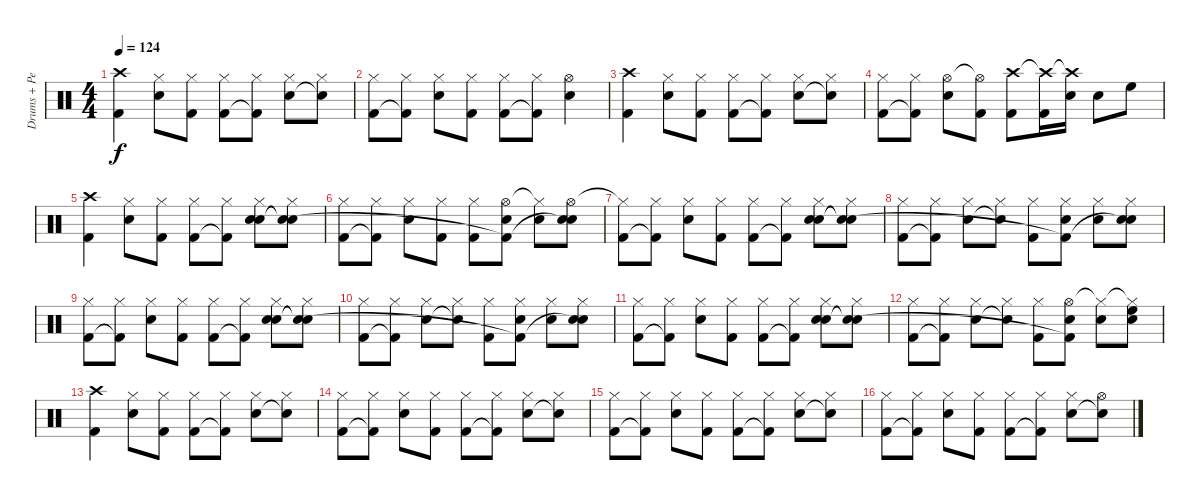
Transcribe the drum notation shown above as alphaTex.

\track ("Drums + Percussions (Bill Berry)" "Drums + Pe") {instrument percussion}
\staff {score}
\articulation defaults
\ts (4 4)
\tempo 124
\clef neutral
\ks c
("Crash high (hit)" "Kick (hit) 2").4{dy f} ("Hi-Hat (closed)" "Snare (hit) 2").8 ("Hi-Hat (closed)" "Kick (hit) 2").8 ("Hi-Hat (closed)" "Kick (hit) 2").8 ("Hi-Hat (closed)" "Kick (hit) 2"{t}).8 ("Hi-Hat (closed)" "Snare (hit) 2").8 ("Hi-Hat (closed)" "Snare (hit) 2"{t}).8 |
("Hi-Hat (closed)" "Kick (hit) 2").8 ("Hi-Hat (closed)" "Kick (hit) 2"{t}).8 ("Hi-Hat (closed)" "Snare (hit) 2").8 ("Hi-Hat (closed)" "Kick (hit) 2").8 ("Hi-Hat (closed)" "Kick (hit) 2").8 ("Hi-Hat (closed)" "Kick (hit) 2"{t}).8 ("Hi-Hat (open)" "Snare (hit) 2").4 |
("Crash high (hit)" "Kick (hit) 2").4 ("Hi-Hat (closed)" "Snare (hit) 2").8 ("Hi-Hat (closed)" "Kick (hit) 2").8 ("Hi-Hat (closed)" "Kick (hit) 2").8 ("Hi-Hat (closed)" "Kick (hit) 2"{t}).8 ("Hi-Hat (closed)" "Snare (hit) 2").8 ("Hi-Hat (closed)" "Snare (hit) 2"{t}).8 |
("Hi-Hat (closed)" "Kick (hit) 2").8 ("Hi-Hat (closed)" "Kick (hit) 2"{t}).8 ("Hi-Hat (open)" "Snare (hit) 2").8 ("Hi-Hat (open)"{t} "Kick (hit) 2").8 ("Crash high (hit)" "Kick (hit) 2").8 ("Crash high (hit)"{t} "Kick (hit) 2").16 ("Crash high (hit)"{t} "Snare (hit) 2").16 "Snare (hit) 2".8 "High Floor Tom (hit)".8 |
("Crash high (hit)" "Kick (hit) 2").4 ("Hi-Hat (closed)" "Snare (hit) 2").8 ("Hi-Hat (closed)" "Kick (hit) 2").8 ("Hi-Hat (closed)" "Kick (hit) 2").8 ("Hi-Hat (closed)" "Kick (hit) 2"{t}).8 ("Hi-Hat (closed)" "Hand Clap (hit)" "Snare (hit) 2").8 ("Hi-Hat (closed)" "Hand Clap (hit)"{t} "Snare (hit) 2"{t}).8 |
("Hi-Hat (closed)" "Kick (hit) 2").8 ("Hi-Hat (closed)" "Kick (hit) 2"{t}).8 ("Hi-Hat (closed)" "Snare (hit) 2").8 ("Hi-Hat (closed)" "Kick (hit) 2").8 ("Hi-Hat (closed)" "Kick (hit) 2").8 ("Hi-Hat (open)" "Hand Clap (hit)" "Kick (hit) 2"{t}).8 ("Hi-Hat (closed)"{t} "Snare (hit) 2").8 ("Hi-Hat (open)" "Hand Clap (hit)" "Snare (hit) 2"{t}).8 |
("Hi-Hat (closed)"{t} "Kick (hit) 2").8 ("Hi-Hat (closed)" "Kick (hit) 2"{t}).8 ("Hi-Hat (closed)" "Snare (hit) 2").8 ("Hi-Hat (closed)" "Kick (hit) 2").8 ("Hi-Hat (closed)" "Kick (hit) 2").8 ("Hi-Hat (closed)" "Kick (hit) 2"{t}).8 ("Hi-Hat (closed)" "Hand Clap (hit)" "Snare (hit) 2").8 ("Hi-Hat (closed)" "Hand Clap (hit)"{t} "Snare (hit) 2"{t}).8 |
("Hi-Hat (closed)" "Kick (hit) 2").8 ("Hi-Hat (closed)" "Kick (hit) 2"{t}).8 ("Hi-Hat (closed)" "Snare (hit) 2").8 ("Hi-Hat (closed)" "Snare (hit) 2"{t}).8 ("Hi-Hat (closed)" "Kick (hit) 2").8 ("Hi-Hat (closed)" "Hand Clap (hit)" "Kick (hit) 2"{t}).8 ("Hi-Hat (closed)" "Snare (hit) 2").8 ("Hi-Hat (closed)" "Hand Clap (hit)" "Snare (hit) 2"{t}).8 |
("Hi-Hat (closed)" "Kick (hit) 2").8 ("Hi-Hat (closed)" "Kick (hit) 2"{t}).8 ("Hi-Hat (closed)" "Snare (hit) 2").8 ("Hi-Hat (closed)" "Kick (hit) 2").8 ("Hi-Hat (closed)" "Kick (hit) 2").8 ("Hi-Hat (closed)" "Kick (hit) 2"{t}).8 ("Hi-Hat (closed)" "Hand Clap (hit)" "Snare (hit) 2").8 ("Hi-Hat (closed)" "Hand Clap (hit)"{t} "Snare (hit) 2"{t}).8 |
("Hi-Hat (closed)" "Kick (hit) 2").8 ("Hi-Hat (closed)" "Kick (hit) 2"{t}).8 ("Hi-Hat (closed)" "Snare (hit) 2").8 ("Hi-Hat (closed)" "Snare (hit) 2"{t}).8 ("Hi-Hat (closed)" "Kick (hit) 2").8 ("Hi-Hat (closed)" "Hand Clap (hit)" "Kick (hit) 2"{t}).8 ("Hi-Hat (closed)" "Snare (hit) 2").8 ("Hi-Hat (closed)" "Hand Clap (hit)" "Snare (hit) 2"{t}).8 |
("Hi-Hat (closed)" "Kick (hit) 2").8 ("Hi-Hat (closed)" "Kick (hit) 2"{t}).8 ("Hi-Hat (closed)" "Snare (hit) 2").8 ("Hi-Hat (closed)" "Kick (hit) 2").8 ("Hi-Hat (closed)" "Kick (hit) 2").8 ("Hi-Hat (closed)" "Kick (hit) 2"{t}).8 ("Hi-Hat (closed)" "Hand Clap (hit)" "Snare (hit) 2").8 ("Hi-Hat (closed)" "Hand Clap (hit)"{t} "Snare (hit) 2"{t}).8 |
("Hi-Hat (closed)" "Kick (hit) 2").8 ("Hi-Hat (closed)" "Kick (hit) 2"{t}).8 ("Hi-Hat (closed)" "Snare (hit) 2").8 ("Hi-Hat (closed)" "Snare (hit) 2"{t}).8 ("Hi-Hat (closed)" "Kick (hit) 2").8 ("Hi-Hat (open)" "Hand Clap (hit)" "Kick (hit) 2"{t}).8 ("Hi-Hat (closed)"{t} "Snare (hit) 2").8 ("Hi-Hat (closed)"{t} "Hand Clap (hit)" "High Floor Tom (hit)").8 |
("Crash high (hit)" "Kick (hit) 2").4 ("Hi-Hat (closed)" "Snare (hit) 2").8 ("Hi-Hat (closed)" "Kick (hit) 2").8 ("Hi-Hat (closed)" "Kick (hit) 2").8 ("Hi-Hat (closed)" "Kick (hit) 2"{t}).8 ("Hi-Hat (closed)" "Snare (hit) 2").8 ("Hi-Hat (closed)" "Snare (hit) 2"{t}).8 |
("Hi-Hat (closed)" "Kick (hit) 2").8 ("Hi-Hat (closed)" "Kick (hit) 2"{t}).8 ("Hi-Hat (closed)" "Snare (hit) 2").8 ("Hi-Hat (closed)" "Kick (hit) 2").8 ("Hi-Hat (closed)" "Kick (hit) 2").8 ("Hi-Hat (closed)" "Kick (hit) 2"{t}).8 ("Hi-Hat (closed)" "Snare (hit) 2").8 ("Hi-Hat (closed)" "Snare (hit) 2"{t}).8 |
("Hi-Hat (closed)" "Kick (hit) 2").8 ("Hi-Hat (closed)" "Kick (hit) 2"{t}).8 ("Hi-Hat (closed)" "Snare (hit) 2").8 ("Hi-Hat (closed)" "Kick (hit) 2").8 ("Hi-Hat (closed)" "Kick (hit) 2").8 ("Hi-Hat (closed)" "Kick (hit) 2"{t}).8 ("Hi-Hat (closed)" "Snare (hit) 2").8 ("Hi-Hat (closed)" "Snare (hit) 2"{t}).8 |
("Hi-Hat (closed)" "Kick (hit) 2").8 ("Hi-Hat (closed)" "Kick (hit) 2"{t}).8 ("Hi-Hat (closed)" "Snare (hit) 2").8 ("Hi-Hat (closed)" "Kick (hit) 2").8 ("Hi-Hat (closed)" "Kick (hit) 2").8 ("Hi-Hat (closed)" "Kick (hit) 2"{t}).8 ("Hi-Hat (closed)" "Snare (hit) 2").8 ("Hi-Hat (open)" "Snare (hit) 2"{t}).8
